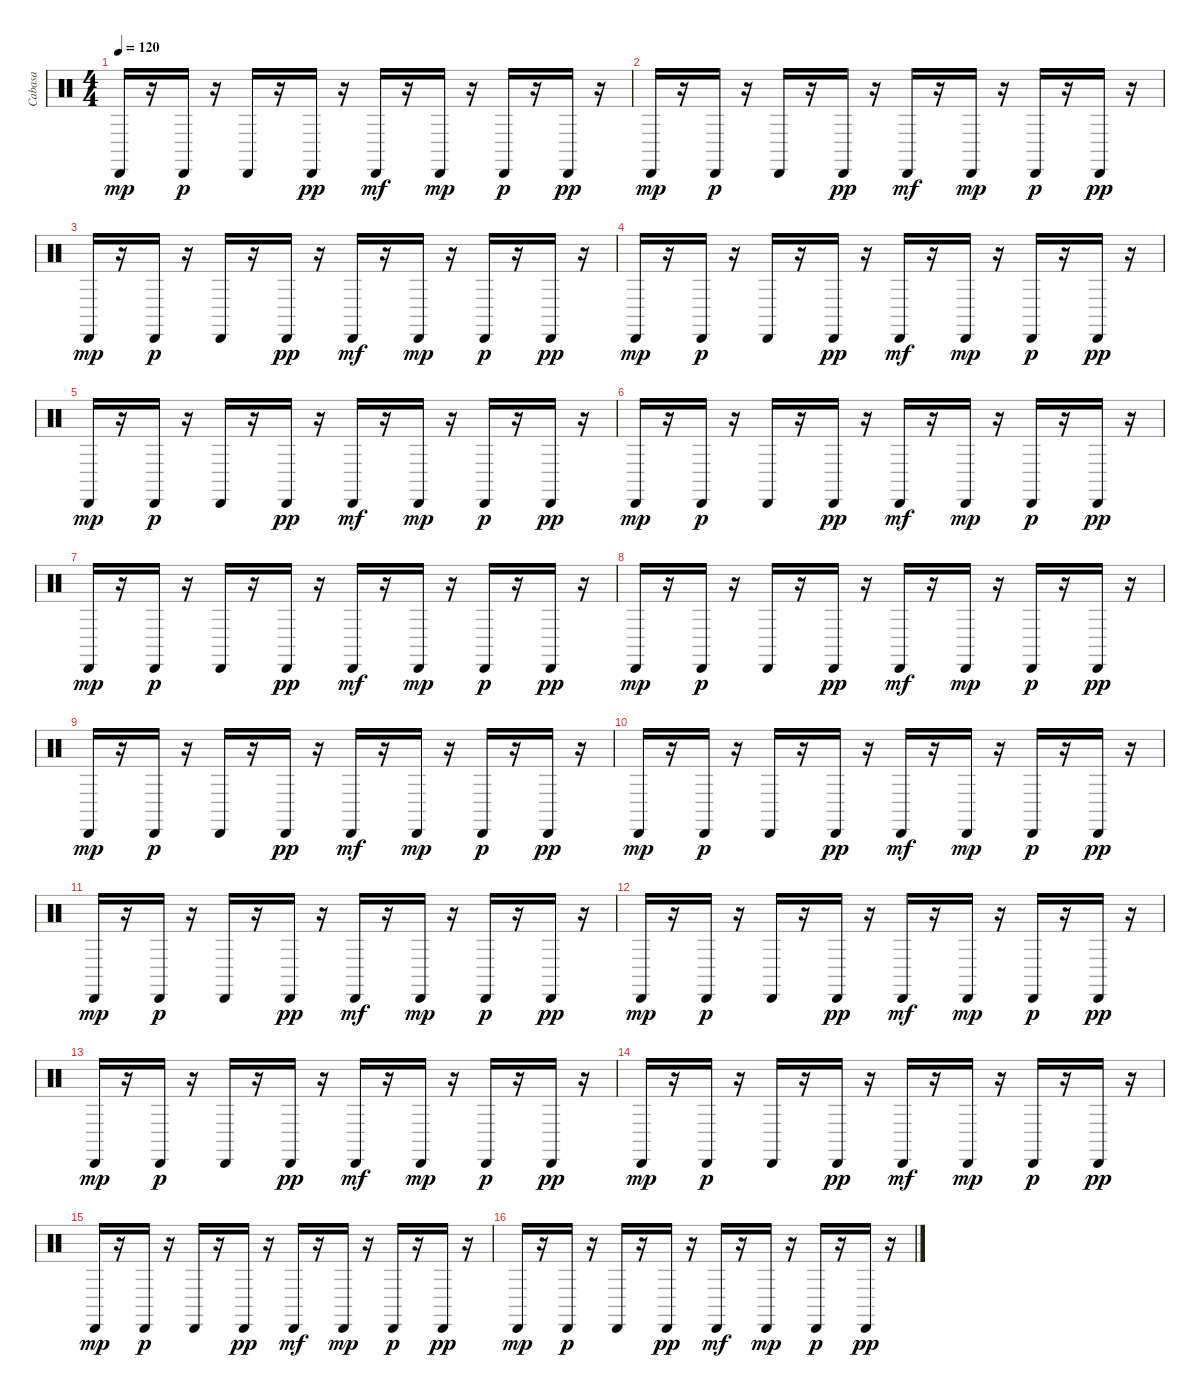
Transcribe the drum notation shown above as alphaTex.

\track ("Cabasa" "Cabasa") {instrument percussion}
\staff {score}
\articulation defaults
\ts (4 4)
\tempo 120
\clef neutral
\ks c "Cabasa (hit)".16{dy mp}
r.16 "Cabasa (hit)".16{dy p} r.16 "Cabasa (hit)".16 r.16 "Cabasa (hit)".16{dy pp} r.16 "Cabasa (hit)".16{dy mf} r.16 "Cabasa (hit)".16{dy mp} r.16 "Cabasa (hit)".16{dy p} r.16 "Cabasa (hit)".16{dy pp} r.16 |
"Cabasa (hit)".16{dy mp} r.16 "Cabasa (hit)".16{dy p} r.16 "Cabasa (hit)".16 r.16 "Cabasa (hit)".16{dy pp} r.16 "Cabasa (hit)".16{dy mf} r.16 "Cabasa (hit)".16{dy mp} r.16 "Cabasa (hit)".16{dy p} r.16 "Cabasa (hit)".16{dy pp} r.16 |
"Cabasa (hit)".16{dy mp} r.16 "Cabasa (hit)".16{dy p} r.16 "Cabasa (hit)".16 r.16 "Cabasa (hit)".16{dy pp} r.16 "Cabasa (hit)".16{dy mf} r.16 "Cabasa (hit)".16{dy mp} r.16 "Cabasa (hit)".16{dy p} r.16 "Cabasa (hit)".16{dy pp} r.16 |
"Cabasa (hit)".16{dy mp} r.16 "Cabasa (hit)".16{dy p} r.16 "Cabasa (hit)".16 r.16 "Cabasa (hit)".16{dy pp} r.16 "Cabasa (hit)".16{dy mf} r.16 "Cabasa (hit)".16{dy mp} r.16 "Cabasa (hit)".16{dy p} r.16 "Cabasa (hit)".16{dy pp} r.16 |
"Cabasa (hit)".16{dy mp} r.16 "Cabasa (hit)".16{dy p} r.16 "Cabasa (hit)".16 r.16 "Cabasa (hit)".16{dy pp} r.16 "Cabasa (hit)".16{dy mf} r.16 "Cabasa (hit)".16{dy mp} r.16 "Cabasa (hit)".16{dy p} r.16 "Cabasa (hit)".16{dy pp} r.16 |
"Cabasa (hit)".16{dy mp} r.16 "Cabasa (hit)".16{dy p} r.16 "Cabasa (hit)".16 r.16 "Cabasa (hit)".16{dy pp} r.16 "Cabasa (hit)".16{dy mf} r.16 "Cabasa (hit)".16{dy mp} r.16 "Cabasa (hit)".16{dy p} r.16 "Cabasa (hit)".16{dy pp} r.16 |
"Cabasa (hit)".16{dy mp} r.16 "Cabasa (hit)".16{dy p} r.16 "Cabasa (hit)".16 r.16 "Cabasa (hit)".16{dy pp} r.16 "Cabasa (hit)".16{dy mf} r.16 "Cabasa (hit)".16{dy mp} r.16 "Cabasa (hit)".16{dy p} r.16 "Cabasa (hit)".16{dy pp} r.16 |
"Cabasa (hit)".16{dy mp} r.16 "Cabasa (hit)".16{dy p} r.16 "Cabasa (hit)".16 r.16 "Cabasa (hit)".16{dy pp} r.16 "Cabasa (hit)".16{dy mf} r.16 "Cabasa (hit)".16{dy mp} r.16 "Cabasa (hit)".16{dy p} r.16 "Cabasa (hit)".16{dy pp} r.16 |
"Cabasa (hit)".16{dy mp} r.16 "Cabasa (hit)".16{dy p} r.16 "Cabasa (hit)".16 r.16 "Cabasa (hit)".16{dy pp} r.16 "Cabasa (hit)".16{dy mf} r.16 "Cabasa (hit)".16{dy mp} r.16 "Cabasa (hit)".16{dy p} r.16 "Cabasa (hit)".16{dy pp} r.16 |
"Cabasa (hit)".16{dy mp} r.16 "Cabasa (hit)".16{dy p} r.16 "Cabasa (hit)".16 r.16 "Cabasa (hit)".16{dy pp} r.16 "Cabasa (hit)".16{dy mf} r.16 "Cabasa (hit)".16{dy mp} r.16 "Cabasa (hit)".16{dy p} r.16 "Cabasa (hit)".16{dy pp} r.16 |
"Cabasa (hit)".16{dy mp} r.16 "Cabasa (hit)".16{dy p} r.16 "Cabasa (hit)".16 r.16 "Cabasa (hit)".16{dy pp} r.16 "Cabasa (hit)".16{dy mf} r.16 "Cabasa (hit)".16{dy mp} r.16 "Cabasa (hit)".16{dy p} r.16 "Cabasa (hit)".16{dy pp} r.16 |
"Cabasa (hit)".16{dy mp} r.16 "Cabasa (hit)".16{dy p} r.16 "Cabasa (hit)".16 r.16 "Cabasa (hit)".16{dy pp} r.16 "Cabasa (hit)".16{dy mf} r.16 "Cabasa (hit)".16{dy mp} r.16 "Cabasa (hit)".16{dy p} r.16 "Cabasa (hit)".16{dy pp} r.16 |
"Cabasa (hit)".16{dy mp} r.16 "Cabasa (hit)".16{dy p} r.16 "Cabasa (hit)".16 r.16 "Cabasa (hit)".16{dy pp} r.16 "Cabasa (hit)".16{dy mf} r.16 "Cabasa (hit)".16{dy mp} r.16 "Cabasa (hit)".16{dy p} r.16 "Cabasa (hit)".16{dy pp} r.16 |
"Cabasa (hit)".16{dy mp} r.16 "Cabasa (hit)".16{dy p} r.16 "Cabasa (hit)".16 r.16 "Cabasa (hit)".16{dy pp} r.16 "Cabasa (hit)".16{dy mf} r.16 "Cabasa (hit)".16{dy mp} r.16 "Cabasa (hit)".16{dy p} r.16 "Cabasa (hit)".16{dy pp} r.16 |
"Cabasa (hit)".16{dy mp} r.16 "Cabasa (hit)".16{dy p} r.16 "Cabasa (hit)".16 r.16 "Cabasa (hit)".16{dy pp} r.16 "Cabasa (hit)".16{dy mf} r.16 "Cabasa (hit)".16{dy mp} r.16 "Cabasa (hit)".16{dy p} r.16 "Cabasa (hit)".16{dy pp} r.16 |
"Cabasa (hit)".16{dy mp} r.16 "Cabasa (hit)".16{dy p} r.16 "Cabasa (hit)".16 r.16 "Cabasa (hit)".16{dy pp} r.16 "Cabasa (hit)".16{dy mf} r.16 "Cabasa (hit)".16{dy mp} r.16 "Cabasa (hit)".16{dy p} r.16 "Cabasa (hit)".16{dy pp} r.16
